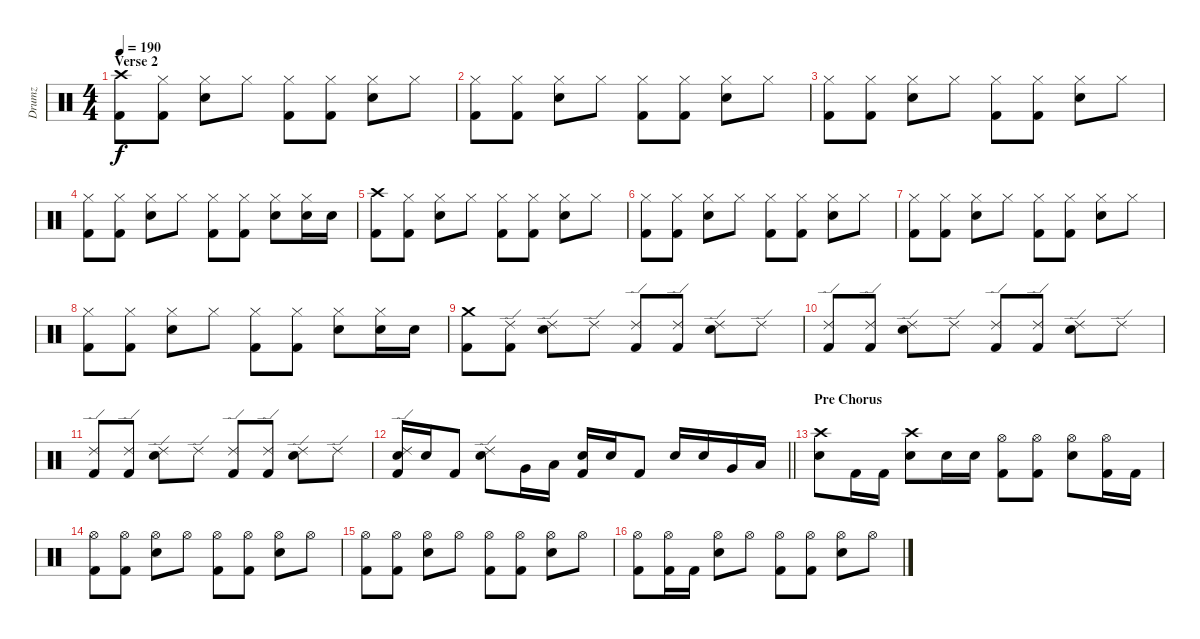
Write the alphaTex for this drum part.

\track ("Drumz" "Drumz") {instrument percussion}
\staff {score}
\articulation defaults
\ts (4 4)
\section ("" "Verse 2")
\tempo 190
\clef neutral
\ks c
("Crash high (hit)" "Kick (hit) 2").8{dy f} ("Hi-Hat (closed)" "Kick (hit) 2").8 ("Snare (hit) 2" "Hi-Hat (closed)").8 "Hi-Hat (closed)".8 ("Hi-Hat (closed)" "Kick (hit) 2").8 ("Hi-Hat (closed)" "Kick (hit) 2").8 ("Snare (hit) 2" "Hi-Hat (closed)").8 "Hi-Hat (closed)".8 |
("Hi-Hat (closed)" "Kick (hit) 2").8 ("Hi-Hat (closed)" "Kick (hit) 2").8 ("Snare (hit) 2" "Hi-Hat (closed)").8 "Hi-Hat (closed)".8 ("Hi-Hat (closed)" "Kick (hit) 2").8 ("Hi-Hat (closed)" "Kick (hit) 2").8 ("Snare (hit) 2" "Hi-Hat (closed)").8 "Hi-Hat (closed)".8 |
("Hi-Hat (closed)" "Kick (hit) 2").8 ("Hi-Hat (closed)" "Kick (hit) 2").8 ("Snare (hit) 2" "Hi-Hat (closed)").8 "Hi-Hat (closed)".8 ("Hi-Hat (closed)" "Kick (hit) 2").8 ("Hi-Hat (closed)" "Kick (hit) 2").8 ("Snare (hit) 2" "Hi-Hat (closed)").8 "Hi-Hat (closed)".8 |
("Hi-Hat (closed)" "Kick (hit) 2").8 ("Hi-Hat (closed)" "Kick (hit) 2").8 ("Snare (hit) 2" "Hi-Hat (closed)").8 "Hi-Hat (closed)".8 ("Hi-Hat (closed)" "Kick (hit) 2").8 ("Hi-Hat (closed)" "Kick (hit) 2").8 ("Snare (hit) 2" "Hi-Hat (closed)").8 ("Snare (hit) 2" "Hi-Hat (closed)").16 "Snare (hit) 2".16 |
("Crash high (hit)" "Kick (hit) 2").8 ("Hi-Hat (closed)" "Kick (hit) 2").8 ("Snare (hit) 2" "Hi-Hat (closed)").8 "Hi-Hat (closed)".8 ("Hi-Hat (closed)" "Kick (hit) 2").8 ("Hi-Hat (closed)" "Kick (hit) 2").8 ("Snare (hit) 2" "Hi-Hat (closed)").8 "Hi-Hat (closed)".8 |
("Hi-Hat (closed)" "Kick (hit) 2").8 ("Hi-Hat (closed)" "Kick (hit) 2").8 ("Snare (hit) 2" "Hi-Hat (closed)").8 "Hi-Hat (closed)".8 ("Hi-Hat (closed)" "Kick (hit) 2").8 ("Hi-Hat (closed)" "Kick (hit) 2").8 ("Snare (hit) 2" "Hi-Hat (closed)").8 "Hi-Hat (closed)".8 |
("Hi-Hat (closed)" "Kick (hit) 2").8 ("Hi-Hat (closed)" "Kick (hit) 2").8 ("Snare (hit) 2" "Hi-Hat (closed)").8 "Hi-Hat (closed)".8 ("Hi-Hat (closed)" "Kick (hit) 2").8 ("Hi-Hat (closed)" "Kick (hit) 2").8 ("Snare (hit) 2" "Hi-Hat (closed)").8 "Hi-Hat (closed)".8 |
("Hi-Hat (closed)" "Kick (hit) 2").8 ("Hi-Hat (closed)" "Kick (hit) 2").8 ("Snare (hit) 2" "Hi-Hat (closed)").8 "Hi-Hat (closed)".8 ("Hi-Hat (closed)" "Kick (hit) 2").8 ("Hi-Hat (closed)" "Kick (hit) 2").8 ("Snare (hit) 2" "Hi-Hat (closed)").8 ("Snare (hit) 2" "Hi-Hat (closed)").16 "Snare (hit) 2".16 |
("Crash medium (hit)" "Kick (hit) 2").8 ("Ride (edge) 2" "Kick (hit) 2").8 ("Ride (edge) 2" "Snare (hit) 2").8 "Ride (edge) 2".8 ("Ride (edge) 2" "Kick (hit) 2").8 ("Ride (edge) 2" "Kick (hit) 2").8 ("Ride (edge) 2" "Snare (hit) 2").8 "Ride (edge) 2".8 |
("Ride (edge) 2" "Kick (hit) 2").8 ("Ride (edge) 2" "Kick (hit) 2").8 ("Ride (edge) 2" "Snare (hit) 2").8 "Ride (edge) 2".8 ("Ride (edge) 2" "Kick (hit) 2").8 ("Ride (edge) 2" "Kick (hit) 2").8 ("Ride (edge) 2" "Snare (hit) 2").8 "Ride (edge) 2".8 |
("Ride (edge) 2" "Kick (hit) 2").8 ("Ride (edge) 2" "Kick (hit) 2").8 ("Ride (edge) 2" "Snare (hit) 2").8 "Ride (edge) 2".8 ("Ride (edge) 2" "Kick (hit) 2").8 ("Ride (edge) 2" "Kick (hit) 2").8 ("Ride (edge) 2" "Snare (hit) 2").8 "Ride (edge) 2".8 |
\barLineRight lightlight
("Ride (edge) 2" "Snare (hit) 2" "Kick (hit) 2").16 "Snare (hit) 2".16 "Kick (hit) 2".8 ("Ride (edge) 2" "Snare (hit) 2").8 "Very Low Tom (hit)".16 "Low Floor Tom (hit)".16 ("Snare (hit) 2" "Kick (hit) 2").16 "Snare (hit) 2".16 "Kick (hit) 2".8 "Snare (hit) 2".16 "Snare (hit) 2".16 "Very Low Tom (hit)".16 "Low Floor Tom (hit)".16 |
\section ("" "Pre Chorus")
("Crash high (hit)" "Snare (hit) 2").8 "Kick (hit) 2".16 "Kick (hit) 2".16 ("Crash high (hit)" "Snare (hit) 2").8 "Snare (hit) 2".16 "Snare (hit) 2".16 ("Hi-Hat (open)" "Kick (hit) 2").8 ("Hi-Hat (open)" "Kick (hit) 2").8 ("Snare (hit) 2" "Hi-Hat (open)").8 ("Hi-Hat (open)" "Kick (hit) 2").16 "Kick (hit) 2".16 |
("Hi-Hat (open)" "Kick (hit) 2").8 ("Hi-Hat (open)" "Kick (hit) 2").8 ("Snare (hit) 2" "Hi-Hat (open)").8 "Hi-Hat (open)".8 ("Hi-Hat (open)" "Kick (hit) 2").8 ("Hi-Hat (open)" "Kick (hit) 2").8 ("Snare (hit) 2" "Hi-Hat (open)").8 "Hi-Hat (open)".8 |
("Hi-Hat (open)" "Kick (hit) 2").8 ("Hi-Hat (open)" "Kick (hit) 2").8 ("Snare (hit) 2" "Hi-Hat (open)").8 "Hi-Hat (open)".8 ("Hi-Hat (open)" "Kick (hit) 2").8 ("Hi-Hat (open)" "Kick (hit) 2").8 ("Snare (hit) 2" "Hi-Hat (open)").8 "Hi-Hat (open)".8 |
("Hi-Hat (open)" "Kick (hit) 2").8 ("Hi-Hat (open)" "Kick (hit) 2").16 "Kick (hit) 2".16 ("Snare (hit) 2" "Hi-Hat (open)").8 "Hi-Hat (open)".8 ("Hi-Hat (open)" "Kick (hit) 2").8 ("Hi-Hat (open)" "Kick (hit) 2").8 ("Snare (hit) 2" "Hi-Hat (open)").8 "Hi-Hat (open)".8
